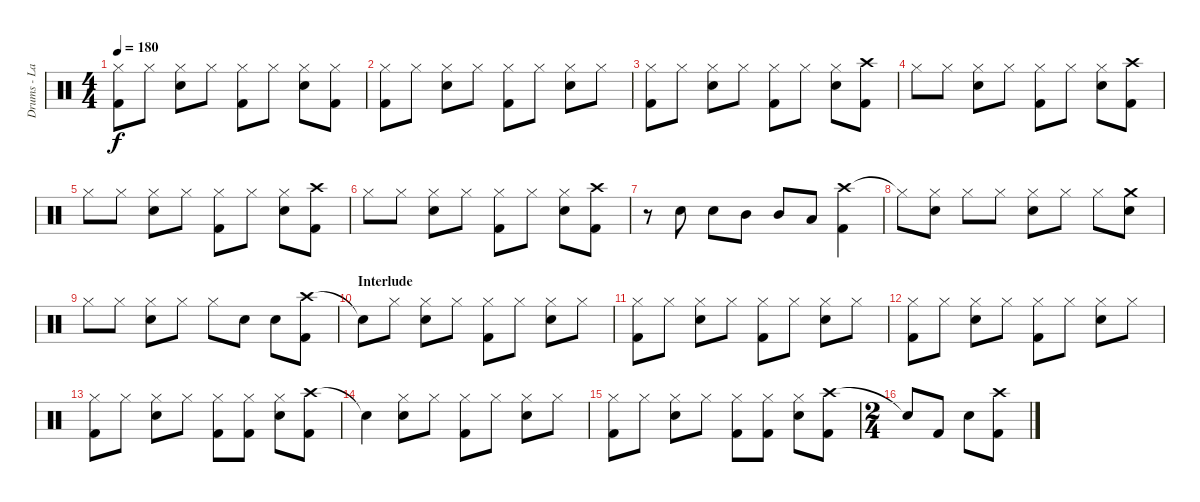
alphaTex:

\track ("Drums - Lars" "Drums - La") {instrument percussion}
\staff {score}
\articulation defaults
\ts (4 4)
\tempo 180
\clef neutral
\ks c
("Hi-Hat (closed)" "Kick (hit) 2").8{dy f} "Hi-Hat (closed)".8 ("Hi-Hat (closed)" "Snare (hit) 2").8 "Hi-Hat (closed)".8 ("Hi-Hat (closed)" "Kick (hit) 2").8 "Hi-Hat (closed)".8 ("Hi-Hat (closed)" "Snare (hit) 2").8 ("Hi-Hat (closed)" "Kick (hit) 2").8 |
("Hi-Hat (closed)" "Kick (hit) 2").8 "Hi-Hat (closed)".8 ("Hi-Hat (closed)" "Snare (hit) 2").8 "Hi-Hat (closed)".8 ("Hi-Hat (closed)" "Kick (hit) 2").8 "Hi-Hat (closed)".8 ("Hi-Hat (closed)" "Snare (hit) 2").8 "Hi-Hat (closed)".8 |
("Hi-Hat (closed)" "Kick (hit) 2").8 "Hi-Hat (closed)".8 ("Hi-Hat (closed)" "Snare (hit) 2").8 "Hi-Hat (closed)".8 ("Hi-Hat (closed)" "Kick (hit) 2").8 "Hi-Hat (closed)".8 ("Hi-Hat (closed)" "Snare (hit) 2").8 ("Crash high (hit)" "Kick (hit) 2").8 |
"Hi-Hat (closed)".8 "Hi-Hat (closed)".8 ("Hi-Hat (closed)" "Snare (hit) 2").8 "Hi-Hat (closed)".8 ("Hi-Hat (closed)" "Kick (hit) 2").8 "Hi-Hat (closed)".8 ("Hi-Hat (closed)" "Snare (hit) 2").8 ("Crash high (hit)" "Kick (hit) 2").8 |
"Hi-Hat (closed)".8 "Hi-Hat (closed)".8 ("Hi-Hat (closed)" "Snare (hit) 2").8 "Hi-Hat (closed)".8 ("Hi-Hat (closed)" "Kick (hit) 2").8 "Hi-Hat (closed)".8 ("Hi-Hat (closed)" "Snare (hit) 2").8 ("Crash high (hit)" "Kick (hit) 2").8 |
"Hi-Hat (closed)".8 "Hi-Hat (closed)".8 ("Hi-Hat (closed)" "Snare (hit) 2").8 "Hi-Hat (closed)".8 ("Hi-Hat (closed)" "Kick (hit) 2").8 "Hi-Hat (closed)".8 ("Hi-Hat (closed)" "Snare (hit) 2").8 ("Crash high (hit)" "Kick (hit) 2").8 |
r.8 "Snare (hit) 2".8 "Snare (hit) 2".8 "Mid Tom (hit)".8 "Mid Tom (hit)".8 "Low Tom (hit)".8 ("Crash high (hit)" "Kick (hit) 2").4 |
"Hi-Hat (closed)"{t}.8 ("Hi-Hat (closed)" "Snare (hit) 2").8 "Hi-Hat (closed)".8 "Hi-Hat (closed)".8 ("Hi-Hat (closed)" "Snare (hit) 2").8 "Hi-Hat (closed)".8 "Hi-Hat (closed)".8 ("Crash medium (hit)" "Snare (hit) 2").8 |
"Hi-Hat (closed)".8 "Hi-Hat (closed)".8 ("Hi-Hat (closed)" "Snare (hit) 2").8 "Hi-Hat (closed)".8 "Hi-Hat (closed)".8 "Snare (hit) 2".8 "Snare (hit) 2".8 ("Crash high (hit)" "Kick (hit) 2").8 |
\section ("" "Interlude")
"Snare (hit)"{t}.8 "Hi-Hat (closed)".8 ("Hi-Hat (closed)" "Snare (hit) 2").8 "Hi-Hat (closed)".8 ("Hi-Hat (closed)" "Kick (hit) 2").8 "Hi-Hat (closed)".8 ("Hi-Hat (closed)" "Snare (hit) 2").8 "Hi-Hat (closed)".8 |
("Hi-Hat (closed)" "Kick (hit) 2").8 "Hi-Hat (closed)".8 ("Hi-Hat (closed)" "Snare (hit) 2").8 "Hi-Hat (closed)".8 ("Hi-Hat (closed)" "Kick (hit) 2").8 "Hi-Hat (closed)".8 ("Hi-Hat (closed)" "Snare (hit) 2").8 "Hi-Hat (closed)".8 |
("Hi-Hat (closed)" "Kick (hit) 2").8 "Hi-Hat (closed)".8 ("Hi-Hat (closed)" "Snare (hit) 2").8 "Hi-Hat (closed)".8 ("Hi-Hat (closed)" "Kick (hit) 2").8 "Hi-Hat (closed)".8 ("Hi-Hat (closed)" "Snare (hit) 2").8 "Hi-Hat (closed)".8 |
("Hi-Hat (closed)" "Kick (hit) 2").8 "Hi-Hat (closed)".8 ("Hi-Hat (closed)" "Snare (hit) 2").8 "Hi-Hat (closed)".8 ("Hi-Hat (closed)" "Kick (hit) 2").8 ("Hi-Hat (closed)" "Kick (hit) 2").8 ("Hi-Hat (closed)" "Snare (hit) 2").8 ("Crash high (hit)" "Kick (hit) 2").8 |
"Snare (hit)"{t}.4 ("Hi-Hat (closed)" "Snare (hit) 2").8 "Hi-Hat (closed)".8 ("Hi-Hat (closed)" "Kick (hit) 2").8 "Hi-Hat (closed)".8 ("Hi-Hat (closed)" "Snare (hit) 2").8 "Hi-Hat (closed)".8 |
("Hi-Hat (closed)" "Kick (hit) 2").8 "Hi-Hat (closed)".8 ("Hi-Hat (closed)" "Snare (hit) 2").8 "Hi-Hat (closed)".8 ("Hi-Hat (closed)" "Kick (hit) 2").8 ("Hi-Hat (closed)" "Kick (hit) 2").8 ("Hi-Hat (closed)" "Snare (hit) 2").8 ("Crash high (hit)" "Kick (hit) 2").8 |
\ts (2 4)
"Snare (hit)"{t}.8 "Kick (hit) 2".8 "Snare (hit) 2".8 ("Crash high (hit)" "Kick (hit) 2").8
